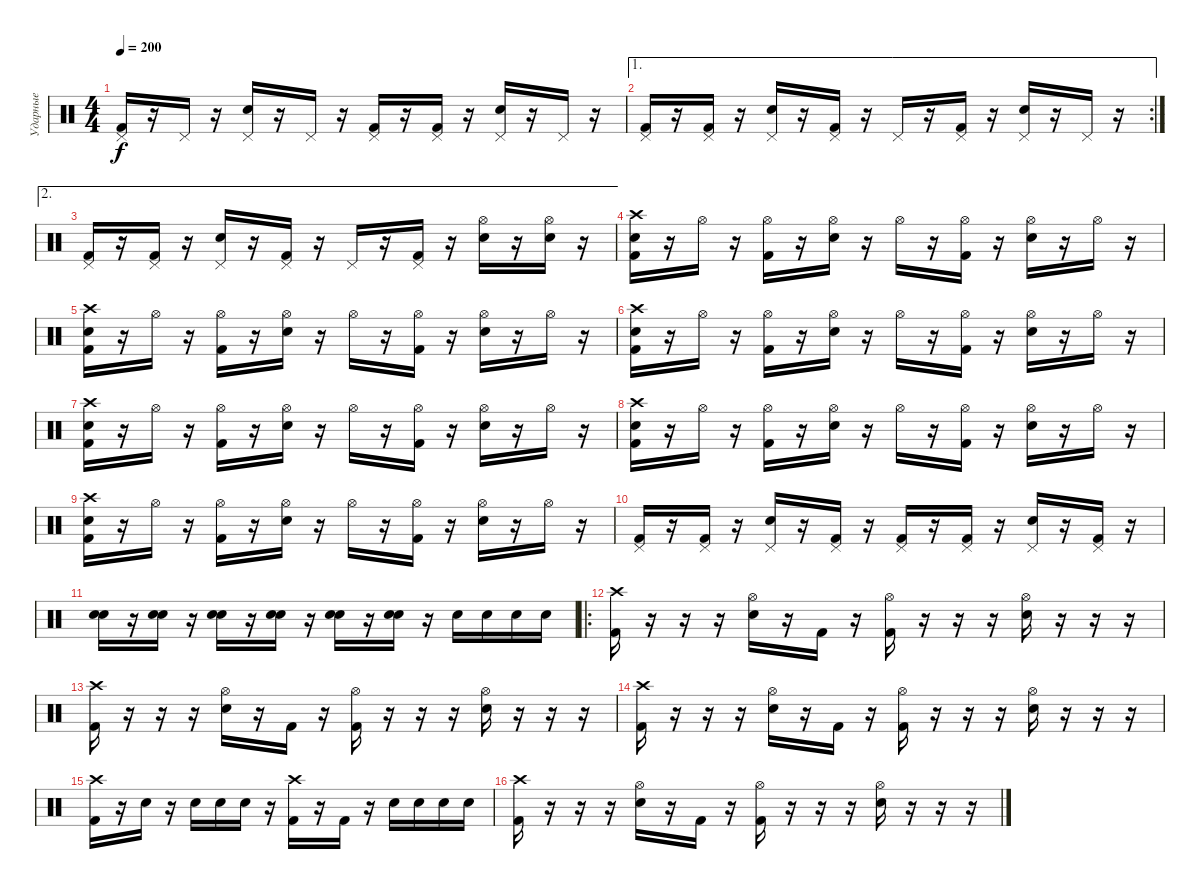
\track ("Ударные" "Ударные") {solo instrument percussion}
\staff {score}
\articulation defaults
\ts (4 4)
\tempo 200
\clef neutral
\ks c
("Pedal Hi-Hat (hit)" "Kick (hit) 2").16{dy f} r.16 "Pedal Hi-Hat (hit)".16 r.16 ("Pedal Hi-Hat (hit)" "Electric Snare (hit)").16 r.16 "Pedal Hi-Hat (hit)".16 r.16 ("Pedal Hi-Hat (hit)" "Kick (hit) 2").16 r.16 ("Pedal Hi-Hat (hit)" "Kick (hit) 2").16 r.16 ("Pedal Hi-Hat (hit)" "Electric Snare (hit)").16 r.16 "Pedal Hi-Hat (hit)".16 r.16 |
\ae 1
\rc 2
("Pedal Hi-Hat (hit)" "Kick (hit) 2").16 r.16 ("Pedal Hi-Hat (hit)" "Kick (hit) 2").16 r.16 ("Pedal Hi-Hat (hit)" "Electric Snare (hit)").16 r.16 ("Pedal Hi-Hat (hit)" "Kick (hit) 2").16 r.16 "Pedal Hi-Hat (hit)".16 r.16 ("Pedal Hi-Hat (hit)" "Kick (hit) 2").16 r.16 ("Pedal Hi-Hat (hit)" "Electric Snare (hit)").16 r.16 "Pedal Hi-Hat (hit)".16 r.16 |
\ae 2
("Pedal Hi-Hat (hit)" "Kick (hit) 2").16 r.16 ("Pedal Hi-Hat (hit)" "Kick (hit) 2").16 r.16 ("Pedal Hi-Hat (hit)" "Electric Snare (hit)").16 r.16 ("Pedal Hi-Hat (hit)" "Kick (hit) 2").16 r.16 "Pedal Hi-Hat (hit)".16 r.16 ("Pedal Hi-Hat (hit)" "Kick (hit) 2").16 r.16 ("Hi-Hat (open)" "Electric Snare (hit)").16 r.16 ("Hi-Hat (open)" "Electric Snare (hit)").16 r.16 |
("Crash high (hit)" "Electric Snare (hit)" "Kick (hit) 2").16 r.16 "Hi-Hat (open)".16 r.16 ("Hi-Hat (open)" "Kick (hit) 2").16 r.16 ("Hi-Hat (open)" "Electric Snare (hit)").16 r.16 "Hi-Hat (open)".16 r.16 ("Hi-Hat (open)" "Kick (hit) 2").16 r.16 ("Hi-Hat (open)" "Electric Snare (hit)").16 r.16 "Hi-Hat (open)".16 r.16 |
("Crash high (hit)" "Electric Snare (hit)" "Kick (hit) 2").16 r.16 "Hi-Hat (open)".16 r.16 ("Hi-Hat (open)" "Kick (hit) 2").16 r.16 ("Hi-Hat (open)" "Electric Snare (hit)").16 r.16 "Hi-Hat (open)".16 r.16 ("Hi-Hat (open)" "Kick (hit) 2").16 r.16 ("Hi-Hat (open)" "Electric Snare (hit)").16 r.16 "Hi-Hat (open)".16 r.16 |
("Crash high (hit)" "Electric Snare (hit)" "Kick (hit) 2").16 r.16 "Hi-Hat (open)".16 r.16 ("Hi-Hat (open)" "Kick (hit) 2").16 r.16 ("Hi-Hat (open)" "Electric Snare (hit)").16 r.16 "Hi-Hat (open)".16 r.16 ("Hi-Hat (open)" "Kick (hit) 2").16 r.16 ("Hi-Hat (open)" "Electric Snare (hit)").16 r.16 "Hi-Hat (open)".16 r.16 |
("Crash high (hit)" "Electric Snare (hit)" "Kick (hit) 2").16 r.16 "Hi-Hat (open)".16 r.16 ("Hi-Hat (open)" "Kick (hit) 2").16 r.16 ("Hi-Hat (open)" "Electric Snare (hit)").16 r.16 "Hi-Hat (open)".16 r.16 ("Hi-Hat (open)" "Kick (hit) 2").16 r.16 ("Hi-Hat (open)" "Electric Snare (hit)").16 r.16 "Hi-Hat (open)".16 r.16 |
("Crash high (hit)" "Electric Snare (hit)" "Kick (hit) 2").16 r.16 "Hi-Hat (open)".16 r.16 ("Hi-Hat (open)" "Kick (hit) 2").16 r.16 ("Hi-Hat (open)" "Electric Snare (hit)").16 r.16 "Hi-Hat (open)".16 r.16 ("Hi-Hat (open)" "Kick (hit) 2").16 r.16 ("Hi-Hat (open)" "Electric Snare (hit)").16 r.16 "Hi-Hat (open)".16 r.16 |
("Crash high (hit)" "Electric Snare (hit)" "Kick (hit) 2").16 r.16 "Hi-Hat (open)".16 r.16 ("Hi-Hat (open)" "Kick (hit) 2").16 r.16 ("Hi-Hat (open)" "Electric Snare (hit)").16 r.16 "Hi-Hat (open)".16 r.16 ("Hi-Hat (open)" "Kick (hit) 2").16 r.16 ("Hi-Hat (open)" "Electric Snare (hit)").16 r.16 "Hi-Hat (open)".16 r.16 |
("Pedal Hi-Hat (hit)" "Kick (hit) 2").16 r.16 ("Pedal Hi-Hat (hit)" "Kick (hit) 2").16 r.16 ("Pedal Hi-Hat (hit)" "Electric Snare (hit)").16 r.16 ("Pedal Hi-Hat (hit)" "Kick (hit) 2").16 r.16 ("Pedal Hi-Hat (hit)" "Kick (hit) 2").16 r.16 ("Pedal Hi-Hat (hit)" "Kick (hit) 2").16 r.16 ("Pedal Hi-Hat (hit)" "Electric Snare (hit)").16 r.16 ("Pedal Hi-Hat (hit)" "Kick (hit) 2").16 r.16 |
("Electric Snare (hit)" "Electric Snare (hit)").16 r.16 ("Electric Snare (hit)" "Electric Snare (hit)").16 r.16 ("Electric Snare (hit)" "Electric Snare (hit)").16 r.16 ("Electric Snare (hit)" "Electric Snare (hit)").16 r.16 ("Electric Snare (hit)" "Electric Snare (hit)").16 r.16 ("Electric Snare (hit)" "Electric Snare (hit)").16 r.16 "Electric Snare (hit)".16 "Electric Snare (hit)".16 "Electric Snare (hit)".16 "Electric Snare (hit)".16 |
\ro
("Crash high (hit)" "Kick (hit) 2").16 r.16 r.16 r.16 ("Hi-Hat (open)" "Electric Snare (hit)").16 r.16 "Kick (hit) 2".16 r.16 ("Hi-Hat (open)" "Kick (hit) 2").16 r.16 r.16 r.16 ("Hi-Hat (open)" "Electric Snare (hit)").16 r.16 r.16 r.16 |
("Crash high (hit)" "Kick (hit) 2").16 r.16 r.16 r.16 ("Hi-Hat (open)" "Electric Snare (hit)").16 r.16 "Kick (hit) 2".16 r.16 ("Hi-Hat (open)" "Kick (hit) 2").16 r.16 r.16 r.16 ("Hi-Hat (open)" "Electric Snare (hit)").16 r.16 r.16 r.16 |
("Crash high (hit)" "Kick (hit) 2").16 r.16 r.16 r.16 ("Hi-Hat (open)" "Electric Snare (hit)").16 r.16 "Kick (hit) 2".16 r.16 ("Hi-Hat (open)" "Kick (hit) 2").16 r.16 r.16 r.16 ("Hi-Hat (open)" "Electric Snare (hit)").16 r.16 r.16 r.16 |
("Crash high (hit)" "Kick (hit) 2").16 r.16 "Electric Snare (hit)".16 r.16 "Electric Snare (hit)".16 "Electric Snare (hit)".16 "Electric Snare (hit)".16 r.16 ("Crash high (hit)" "Kick (hit) 2").16 r.16 "Kick (hit) 2".16 r.16 "Electric Snare (hit)".16 "Electric Snare (hit)".16 "Electric Snare (hit)".16 "Electric Snare (hit)".16 |
("Crash high (hit)" "Kick (hit) 2").16 r.16 r.16 r.16 ("Hi-Hat (open)" "Electric Snare (hit)").16 r.16 "Kick (hit) 2".16 r.16 ("Hi-Hat (open)" "Kick (hit) 2").16 r.16 r.16 r.16 ("Hi-Hat (open)" "Electric Snare (hit)").16 r.16 r.16 r.16
